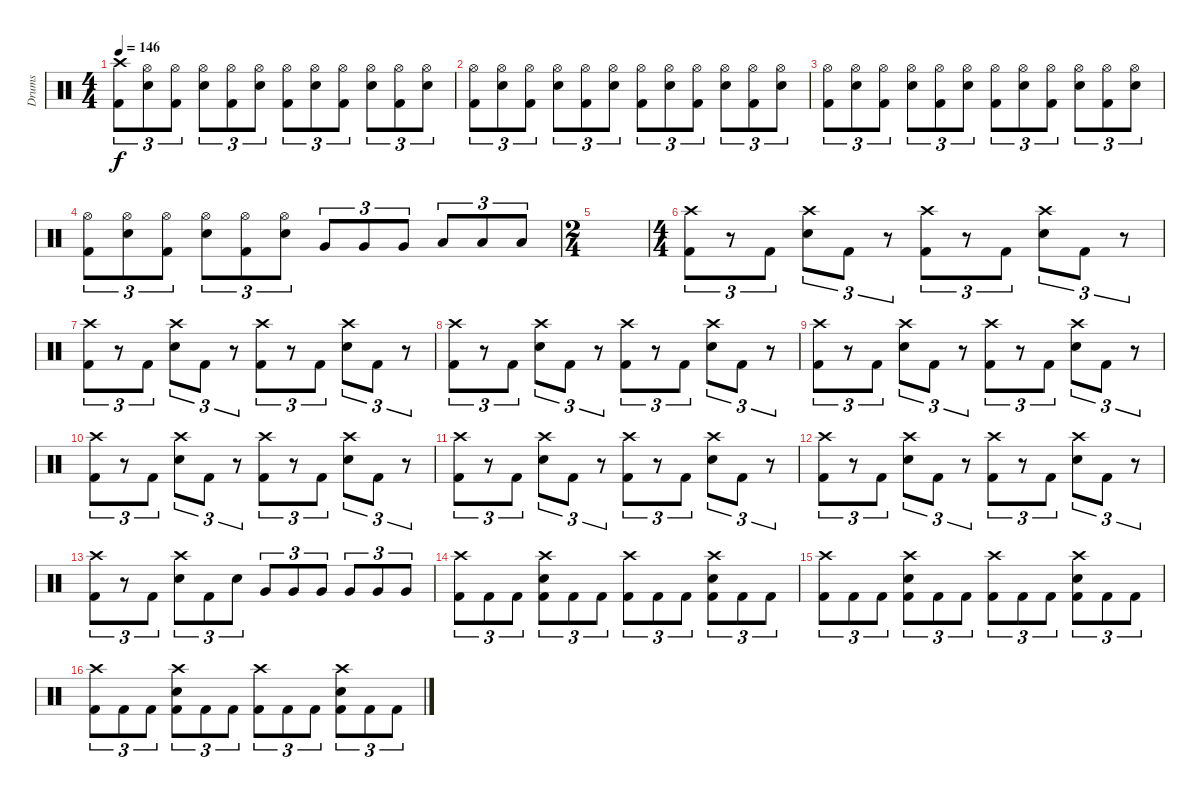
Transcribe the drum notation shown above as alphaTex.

\track ("Drums" "Drums") {instrument percussion}
\staff {score}
\articulation defaults
\ts (4 4)
\tempo 146
\clef neutral
\ks c
("Crash high (hit)" "Kick (hit) 2").8{tu (3 2) dy f} ("Hi-Hat (open)" "Snare (hit) 2").8{tu (3 2)} ("Hi-Hat (open)" "Kick (hit) 2").8{tu (3 2)} ("Hi-Hat (open)" "Snare (hit) 2").8{tu (3 2)} ("Hi-Hat (open)" "Kick (hit) 2").8{tu (3 2)} ("Hi-Hat (open)" "Snare (hit) 2").8{tu (3 2)} ("Hi-Hat (open)" "Kick (hit) 2").8{tu (3 2)} ("Hi-Hat (open)" "Snare (hit) 2").8{tu (3 2)} ("Hi-Hat (open)" "Kick (hit) 2").8{tu (3 2)} ("Hi-Hat (open)" "Snare (hit) 2").8{tu (3 2)} ("Hi-Hat (open)" "Kick (hit) 2").8{tu (3 2)} ("Hi-Hat (open)" "Snare (hit) 2").8{tu (3 2)} |
("Hi-Hat (open)" "Kick (hit) 2").8{tu (3 2)} ("Hi-Hat (open)" "Snare (hit) 2").8{tu (3 2)} ("Hi-Hat (open)" "Kick (hit) 2").8{tu (3 2)} ("Hi-Hat (open)" "Snare (hit) 2").8{tu (3 2)} ("Hi-Hat (open)" "Kick (hit) 2").8{tu (3 2)} ("Hi-Hat (open)" "Snare (hit) 2").8{tu (3 2)} ("Hi-Hat (open)" "Kick (hit) 2").8{tu (3 2)} ("Hi-Hat (open)" "Snare (hit) 2").8{tu (3 2)} ("Hi-Hat (open)" "Kick (hit) 2").8{tu (3 2)} ("Hi-Hat (open)" "Snare (hit) 2").8{tu (3 2)} ("Hi-Hat (open)" "Kick (hit) 2").8{tu (3 2)} ("Hi-Hat (open)" "Snare (hit) 2").8{tu (3 2)} |
("Hi-Hat (open)" "Kick (hit) 2").8{tu (3 2)} ("Hi-Hat (open)" "Snare (hit) 2").8{tu (3 2)} ("Hi-Hat (open)" "Kick (hit) 2").8{tu (3 2)} ("Hi-Hat (open)" "Snare (hit) 2").8{tu (3 2)} ("Hi-Hat (open)" "Kick (hit) 2").8{tu (3 2)} ("Hi-Hat (open)" "Snare (hit) 2").8{tu (3 2)} ("Hi-Hat (open)" "Kick (hit) 2").8{tu (3 2)} ("Hi-Hat (open)" "Snare (hit) 2").8{tu (3 2)} ("Hi-Hat (open)" "Kick (hit) 2").8{tu (3 2)} ("Hi-Hat (open)" "Snare (hit) 2").8{tu (3 2)} ("Hi-Hat (open)" "Kick (hit) 2").8{tu (3 2)} ("Hi-Hat (open)" "Snare (hit) 2").8{tu (3 2)} |
("Hi-Hat (open)" "Kick (hit) 2").8{tu (3 2)} ("Hi-Hat (open)" "Snare (hit) 2").8{tu (3 2)} ("Hi-Hat (open)" "Kick (hit) 2").8{tu (3 2)} ("Hi-Hat (open)" "Snare (hit) 2").8{tu (3 2)} ("Hi-Hat (open)" "Kick (hit) 2").8{tu (3 2)} ("Hi-Hat (open)" "Snare (hit) 2").8{tu (3 2)} "Very Low Tom (hit)".8{tu (3 2)} "Very Low Tom (hit)".8{tu (3 2)} "Very Low Tom (hit)".8{tu (3 2)} "Low Floor Tom (hit)".8{tu (3 2)} "Low Floor Tom (hit)".8{tu (3 2)} "Low Floor Tom (hit)".8{tu (3 2)} |
\ts (2 4)
|
\ts (4 4)
("Crash high (hit)" "Kick (hit) 2").8{tu (3 2)} r.8{tu (3 2)} "Kick (hit) 2".8{tu (3 2)} ("Crash high (hit)" "Snare (hit) 2").8{tu (3 2)} "Kick (hit) 2".8{tu (3 2)} r.8{tu (3 2)} ("Crash high (hit)" "Kick (hit) 2").8{tu (3 2)} r.8{tu (3 2)} "Kick (hit) 2".8{tu (3 2)} ("Crash high (hit)" "Snare (hit) 2").8{tu (3 2)} "Kick (hit) 2".8{tu (3 2)} r.8{tu (3 2)} |
("Crash high (hit)" "Kick (hit) 2").8{tu (3 2)} r.8{tu (3 2)} "Kick (hit) 2".8{tu (3 2)} ("Crash high (hit)" "Snare (hit) 2").8{tu (3 2)} "Kick (hit) 2".8{tu (3 2)} r.8{tu (3 2)} ("Crash high (hit)" "Kick (hit) 2").8{tu (3 2)} r.8{tu (3 2)} "Kick (hit) 2".8{tu (3 2)} ("Crash high (hit)" "Snare (hit) 2").8{tu (3 2)} "Kick (hit) 2".8{tu (3 2)} r.8{tu (3 2)} |
("Crash high (hit)" "Kick (hit) 2").8{tu (3 2)} r.8{tu (3 2)} "Kick (hit) 2".8{tu (3 2)} ("Crash high (hit)" "Snare (hit) 2").8{tu (3 2)} "Kick (hit) 2".8{tu (3 2)} r.8{tu (3 2)} ("Crash high (hit)" "Kick (hit) 2").8{tu (3 2)} r.8{tu (3 2)} "Kick (hit) 2".8{tu (3 2)} ("Crash high (hit)" "Snare (hit) 2").8{tu (3 2)} "Kick (hit) 2".8{tu (3 2)} r.8{tu (3 2)} |
("Crash high (hit)" "Kick (hit) 2").8{tu (3 2)} r.8{tu (3 2)} "Kick (hit) 2".8{tu (3 2)} ("Crash high (hit)" "Snare (hit) 2").8{tu (3 2)} "Kick (hit) 2".8{tu (3 2)} r.8{tu (3 2)} ("Crash high (hit)" "Kick (hit) 2").8{tu (3 2)} r.8{tu (3 2)} "Kick (hit) 2".8{tu (3 2)} ("Crash high (hit)" "Snare (hit) 2").8{tu (3 2)} "Kick (hit) 2".8{tu (3 2)} r.8{tu (3 2)} |
("Crash high (hit)" "Kick (hit) 2").8{tu (3 2)} r.8{tu (3 2)} "Kick (hit) 2".8{tu (3 2)} ("Crash high (hit)" "Snare (hit) 2").8{tu (3 2)} "Kick (hit) 2".8{tu (3 2)} r.8{tu (3 2)} ("Crash high (hit)" "Kick (hit) 2").8{tu (3 2)} r.8{tu (3 2)} "Kick (hit) 2".8{tu (3 2)} ("Crash high (hit)" "Snare (hit) 2").8{tu (3 2)} "Kick (hit) 2".8{tu (3 2)} r.8{tu (3 2)} |
("Crash high (hit)" "Kick (hit) 2").8{tu (3 2)} r.8{tu (3 2)} "Kick (hit) 2".8{tu (3 2)} ("Crash high (hit)" "Snare (hit) 2").8{tu (3 2)} "Kick (hit) 2".8{tu (3 2)} r.8{tu (3 2)} ("Crash high (hit)" "Kick (hit) 2").8{tu (3 2)} r.8{tu (3 2)} "Kick (hit) 2".8{tu (3 2)} ("Crash high (hit)" "Snare (hit) 2").8{tu (3 2)} "Kick (hit) 2".8{tu (3 2)} r.8{tu (3 2)} |
("Crash high (hit)" "Kick (hit) 2").8{tu (3 2)} r.8{tu (3 2)} "Kick (hit) 2".8{tu (3 2)} ("Crash high (hit)" "Snare (hit) 2").8{tu (3 2)} "Kick (hit) 2".8{tu (3 2)} r.8{tu (3 2)} ("Crash high (hit)" "Kick (hit) 2").8{tu (3 2)} r.8{tu (3 2)} "Kick (hit) 2".8{tu (3 2)} ("Crash high (hit)" "Snare (hit) 2").8{tu (3 2)} "Kick (hit) 2".8{tu (3 2)} r.8{tu (3 2)} |
("Crash high (hit)" "Kick (hit) 2").8{tu (3 2)} r.8{tu (3 2)} "Kick (hit) 2".8{tu (3 2)} ("Crash high (hit)" "Snare (hit) 2").8{tu (3 2)} "Kick (hit) 2".8{tu (3 2)} "Snare (hit) 2".8{tu (3 2)} "Very Low Tom (hit)".8{tu (3 2)} "Very Low Tom (hit)".8{tu (3 2)} "Very Low Tom (hit)".8{tu (3 2)} "Very Low Tom (hit)".8{tu (3 2)} "Very Low Tom (hit)".8{tu (3 2)} "Very Low Tom (hit)".8{tu (3 2)} |
("Crash high (hit)" "Kick (hit) 2").8{tu (3 2)} "Kick (hit) 2".8{tu (3 2)} "Kick (hit) 2".8{tu (3 2)} ("Crash high (hit)" "Snare (hit) 2" "Kick (hit) 2").8{tu (3 2)} "Kick (hit) 2".8{tu (3 2)} "Kick (hit) 2".8{tu (3 2)} ("Crash high (hit)" "Kick (hit) 2").8{tu (3 2)} "Kick (hit) 2".8{tu (3 2)} "Kick (hit) 2".8{tu (3 2)} ("Crash high (hit)" "Snare (hit) 2" "Kick (hit) 2").8{tu (3 2)} "Kick (hit) 2".8{tu (3 2)} "Kick (hit) 2".8{tu (3 2)} |
("Crash high (hit)" "Kick (hit) 2").8{tu (3 2)} "Kick (hit) 2".8{tu (3 2)} "Kick (hit) 2".8{tu (3 2)} ("Crash high (hit)" "Snare (hit) 2" "Kick (hit) 2").8{tu (3 2)} "Kick (hit) 2".8{tu (3 2)} "Kick (hit) 2".8{tu (3 2)} ("Crash high (hit)" "Kick (hit) 2").8{tu (3 2)} "Kick (hit) 2".8{tu (3 2)} "Kick (hit) 2".8{tu (3 2)} ("Crash high (hit)" "Snare (hit) 2" "Kick (hit) 2").8{tu (3 2)} "Kick (hit) 2".8{tu (3 2)} "Kick (hit) 2".8{tu (3 2)} |
("Crash high (hit)" "Kick (hit) 2").8{tu (3 2)} "Kick (hit) 2".8{tu (3 2)} "Kick (hit) 2".8{tu (3 2)} ("Crash high (hit)" "Snare (hit) 2" "Kick (hit) 2").8{tu (3 2)} "Kick (hit) 2".8{tu (3 2)} "Kick (hit) 2".8{tu (3 2)} ("Crash high (hit)" "Kick (hit) 2").8{tu (3 2)} "Kick (hit) 2".8{tu (3 2)} "Kick (hit) 2".8{tu (3 2)} ("Crash high (hit)" "Snare (hit) 2" "Kick (hit) 2").8{tu (3 2)} "Kick (hit) 2".8{tu (3 2)} "Kick (hit) 2".8{tu (3 2)}
